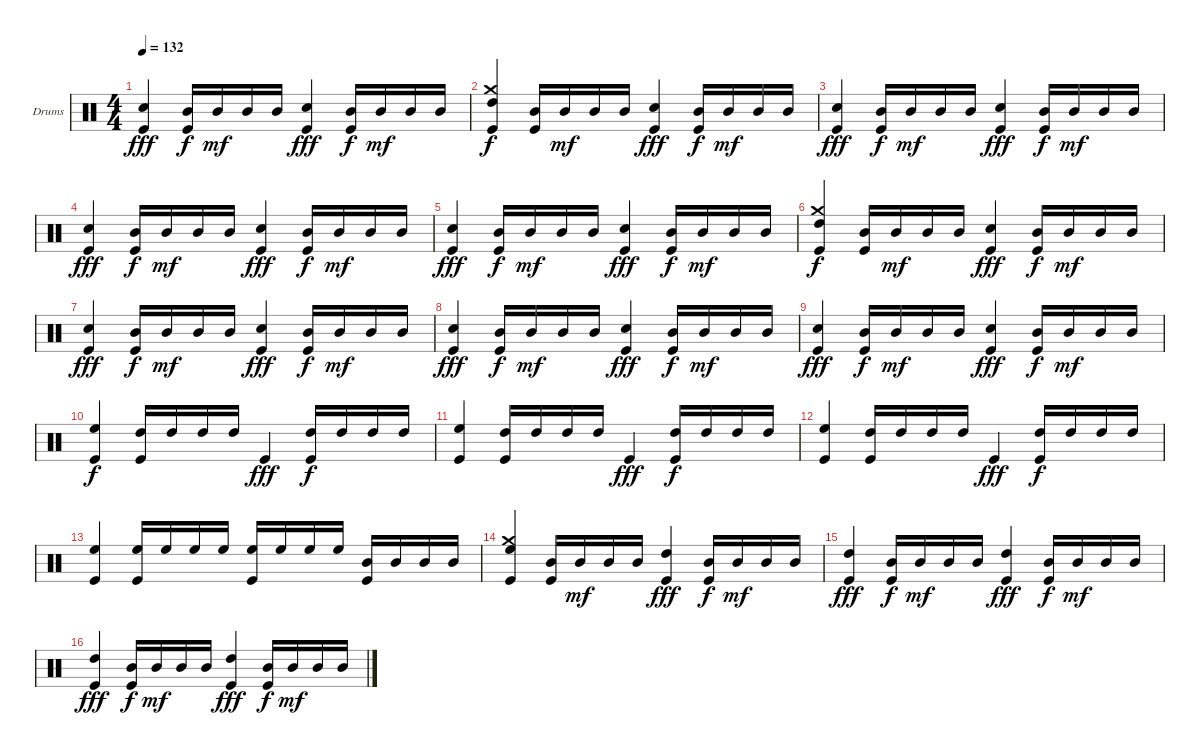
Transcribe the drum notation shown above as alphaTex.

\bracketExtendMode groupsimilarinstruments
\firstSystemTrackNameOrientation horizontal
\otherSystemsTrackNameOrientation horizontal
\track ("Larry" "Drums") {instrument percussion}
\staff {score}
\articulation defaults
\ts (4 4)
\tempo 132
\clef neutral
\ks c
("Snare (hit) 2" "Kick (hit)").4{dy fff} ("Mid Tom (hit)" "Kick (hit)").16{dy f} "Mid Tom (hit)".16{dy mf} "Mid Tom (hit)".16 "Mid Tom (hit)".16 ("Snare (hit) 2" "Kick (hit)").4{dy fff} ("Mid Tom (hit)" "Kick (hit)").16{dy f} "Mid Tom (hit)".16{dy mf} "Mid Tom (hit)".16 "Mid Tom (hit)".16 |
("Crash medium (hit)" "High Tom (hit)" "Kick (hit)").4{dy f} ("Mid Tom (hit)" "Kick (hit)").16 "Mid Tom (hit)".16{dy mf} "Mid Tom (hit)".16 "Mid Tom (hit)".16 ("Snare (hit) 2" "Kick (hit)").4{dy fff} ("Mid Tom (hit)" "Kick (hit)").16{dy f} "Mid Tom (hit)".16{dy mf} "Mid Tom (hit)".16 "Mid Tom (hit)".16 |
("Snare (hit) 2" "Kick (hit)").4{dy fff} ("Mid Tom (hit)" "Kick (hit)").16{dy f} "Mid Tom (hit)".16{dy mf} "Mid Tom (hit)".16 "Mid Tom (hit)".16 ("Snare (hit) 2" "Kick (hit)").4{dy fff} ("Mid Tom (hit)" "Kick (hit)").16{dy f} "Mid Tom (hit)".16{dy mf} "Mid Tom (hit)".16 "Mid Tom (hit)".16 |
("Snare (hit) 2" "Kick (hit)").4{dy fff} ("Mid Tom (hit)" "Kick (hit)").16{dy f} "Mid Tom (hit)".16{dy mf} "Mid Tom (hit)".16 "Mid Tom (hit)".16 ("Snare (hit) 2" "Kick (hit)").4{dy fff} ("Mid Tom (hit)" "Kick (hit)").16{dy f} "Mid Tom (hit)".16{dy mf} "Mid Tom (hit)".16 "Mid Tom (hit)".16 |
("Snare (hit) 2" "Kick (hit)").4{dy fff} ("Mid Tom (hit)" "Kick (hit)").16{dy f} "Mid Tom (hit)".16{dy mf} "Mid Tom (hit)".16 "Mid Tom (hit)".16 ("Snare (hit) 2" "Kick (hit)").4{dy fff} ("Mid Tom (hit)" "Kick (hit)").16{dy f} "Mid Tom (hit)".16{dy mf} "Mid Tom (hit)".16 "Mid Tom (hit)".16 |
("Crash medium (hit)" "High Tom (hit)" "Kick (hit)").4{dy f} ("Mid Tom (hit)" "Kick (hit)").16 "Mid Tom (hit)".16{dy mf} "Mid Tom (hit)".16 "Mid Tom (hit)".16 ("Snare (hit) 2" "Kick (hit)").4{dy fff} ("Mid Tom (hit)" "Kick (hit)").16{dy f} "Mid Tom (hit)".16{dy mf} "Mid Tom (hit)".16 "Mid Tom (hit)".16 |
("Snare (hit) 2" "Kick (hit)").4{dy fff} ("Mid Tom (hit)" "Kick (hit)").16{dy f} "Mid Tom (hit)".16{dy mf} "Mid Tom (hit)".16 "Mid Tom (hit)".16 ("Snare (hit) 2" "Kick (hit)").4{dy fff} ("Mid Tom (hit)" "Kick (hit)").16{dy f} "Mid Tom (hit)".16{dy mf} "Mid Tom (hit)".16 "Mid Tom (hit)".16 |
("Snare (hit) 2" "Kick (hit)").4{dy fff} ("Mid Tom (hit)" "Kick (hit)").16{dy f} "Mid Tom (hit)".16{dy mf} "Mid Tom (hit)".16 "Mid Tom (hit)".16 ("Snare (hit) 2" "Kick (hit)").4{dy fff} ("Mid Tom (hit)" "Kick (hit)").16{dy f} "Mid Tom (hit)".16{dy mf} "Mid Tom (hit)".16 "Mid Tom (hit)".16 |
("Snare (hit) 2" "Kick (hit)").4{dy fff} ("Mid Tom (hit)" "Kick (hit)").16{dy f} "Mid Tom (hit)".16{dy mf} "Mid Tom (hit)".16 "Mid Tom (hit)".16 ("Snare (hit) 2" "Kick (hit)").4{dy fff} ("Mid Tom (hit)" "Kick (hit)").16{dy f} "Mid Tom (hit)".16{dy mf} "Mid Tom (hit)".16 "Mid Tom (hit)".16 |
("High Floor Tom (hit)" "Kick (hit)").4{dy f} ("High Tom (hit)" "Kick (hit)").16 "High Tom (hit)".16 "High Tom (hit)".16 "High Tom (hit)".16 "Kick (hit)".4{dy fff} ("High Tom (hit)" "Kick (hit)").16{dy f} "High Tom (hit)".16 "High Tom (hit)".16 "High Tom (hit)".16 |
("High Floor Tom (hit)" "Kick (hit)").4 ("High Tom (hit)" "Kick (hit)").16 "High Tom (hit)".16 "High Tom (hit)".16 "High Tom (hit)".16 "Kick (hit)".4{dy fff} ("High Tom (hit)" "Kick (hit)").16{dy f} "High Tom (hit)".16 "High Tom (hit)".16 "High Tom (hit)".16 |
("High Floor Tom (hit)" "Kick (hit)").4 ("High Tom (hit)" "Kick (hit)").16 "High Tom (hit)".16 "High Tom (hit)".16 "High Tom (hit)".16 "Kick (hit)".4{dy fff} ("High Tom (hit)" "Kick (hit)").16{dy f} "High Tom (hit)".16 "High Tom (hit)".16 "High Tom (hit)".16 |
("High Floor Tom (hit)" "Kick (hit)").4 ("High Floor Tom (hit)" "Kick (hit)").16 "High Floor Tom (hit)".16 "High Floor Tom (hit)".16 "High Floor Tom (hit)".16 ("High Floor Tom (hit)" "Kick (hit)").16 "High Floor Tom (hit)".16 "High Floor Tom (hit)".16 "High Floor Tom (hit)".16 ("Mid Tom (hit)" "Kick (hit)").16 "Mid Tom (hit)".16 "Mid Tom (hit)".16 "Mid Tom (hit)".16 |
("Crash medium (hit)" "High Floor Tom (hit)" "Kick (hit)").4 ("Mid Tom (hit)" "Kick (hit)").16 "Mid Tom (hit)".16{dy mf} "Mid Tom (hit)".16 "Mid Tom (hit)".16 ("High Tom (hit)" "Kick (hit)").4{dy fff} ("Mid Tom (hit)" "Kick (hit)").16{dy f} "Mid Tom (hit)".16{dy mf} "Mid Tom (hit)".16 "Mid Tom (hit)".16 |
("High Tom (hit)" "Kick (hit)").4{dy fff} ("Mid Tom (hit)" "Kick (hit)").16{dy f} "Mid Tom (hit)".16{dy mf} "Mid Tom (hit)".16 "Mid Tom (hit)".16 ("High Tom (hit)" "Kick (hit)").4{dy fff} ("Mid Tom (hit)" "Kick (hit)").16{dy f} "Mid Tom (hit)".16{dy mf} "Mid Tom (hit)".16 "Mid Tom (hit)".16 |
("High Tom (hit)" "Kick (hit)").4{dy fff} ("Mid Tom (hit)" "Kick (hit)").16{dy f} "Mid Tom (hit)".16{dy mf} "Mid Tom (hit)".16 "Mid Tom (hit)".16 ("High Tom (hit)" "Kick (hit)").4{dy fff} ("Mid Tom (hit)" "Kick (hit)").16{dy f} "Mid Tom (hit)".16{dy mf} "Mid Tom (hit)".16 "Mid Tom (hit)".16
